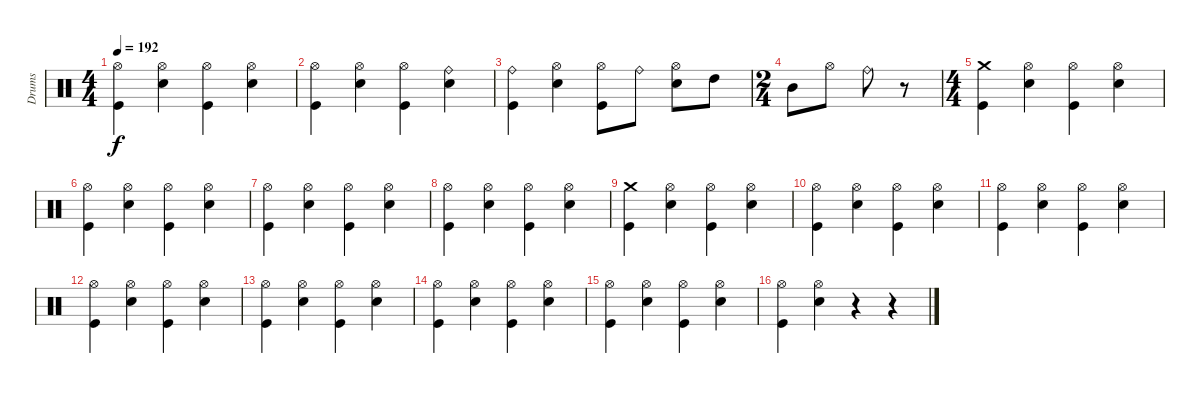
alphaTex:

\track ("Drums" "Drums") {instrument percussion}
\staff {score}
\articulation defaults
\ts (4 4)
\tempo 192
\clef neutral
\ks c
("Kick (hit)" "Hi-Hat (open)").4{dy f} ("Snare (hit) 2" "Hi-Hat (open)").4 ("Kick (hit)" "Hi-Hat (open)").4 ("Snare (hit) 2" "Hi-Hat (open)").4 |
("Kick (hit)" "Hi-Hat (open)").4 ("Snare (hit) 2" "Hi-Hat (open)").4 ("Kick (hit)" "Hi-Hat (open)").4 ("Snare (hit) 2" "Ride (bell)").4 |
("Kick (hit)" "Ride (bell)").4 ("Snare (hit) 2" "Hi-Hat (open)").4 ("Kick (hit)" "Hi-Hat (open)").8 "Ride (bell)".8 ("Snare (hit) 2" "Hi-Hat (open)").8 "High Tom (hit)".8 |
\ts (2 4)
"Mid Tom (hit)".8 "Hi-Hat (open)".8 "Ride (bell)".8 r.8 |
\ts (4 4)
("Kick (hit)" "Crash medium (hit)").4 ("Snare (hit) 2" "Hi-Hat (open)").4 ("Kick (hit)" "Hi-Hat (open)").4 ("Snare (hit) 2" "Hi-Hat (open)").4 |
("Kick (hit)" "Hi-Hat (open)").4 ("Snare (hit) 2" "Hi-Hat (open)").4 ("Kick (hit)" "Hi-Hat (open)").4 ("Snare (hit) 2" "Hi-Hat (open)").4 |
("Kick (hit)" "Hi-Hat (open)").4 ("Snare (hit) 2" "Hi-Hat (open)").4 ("Kick (hit)" "Hi-Hat (open)").4 ("Snare (hit) 2" "Hi-Hat (open)").4 |
("Kick (hit)" "Hi-Hat (open)").4 ("Snare (hit) 2" "Hi-Hat (open)").4 ("Kick (hit)" "Hi-Hat (open)").4 ("Snare (hit) 2" "Hi-Hat (open)").4 |
("Kick (hit)" "Crash medium (hit)").4 ("Snare (hit) 2" "Hi-Hat (open)").4 ("Kick (hit)" "Hi-Hat (open)").4 ("Snare (hit) 2" "Hi-Hat (open)").4 |
("Kick (hit)" "Hi-Hat (open)").4 ("Snare (hit) 2" "Hi-Hat (open)").4 ("Kick (hit)" "Hi-Hat (open)").4 ("Snare (hit) 2" "Hi-Hat (open)").4 |
("Kick (hit)" "Hi-Hat (open)").4 ("Snare (hit) 2" "Hi-Hat (open)").4 ("Kick (hit)" "Hi-Hat (open)").4 ("Snare (hit) 2" "Hi-Hat (open)").4 |
("Kick (hit)" "Hi-Hat (open)").4 ("Snare (hit) 2" "Hi-Hat (open)").4 ("Kick (hit)" "Hi-Hat (open)").4 ("Snare (hit) 2" "Hi-Hat (open)").4 |
("Kick (hit)" "Hi-Hat (open)").4 ("Snare (hit) 2" "Hi-Hat (open)").4 ("Kick (hit)" "Hi-Hat (open)").4 ("Snare (hit) 2" "Hi-Hat (open)").4 |
("Kick (hit)" "Hi-Hat (open)").4 ("Snare (hit) 2" "Hi-Hat (open)").4 ("Kick (hit)" "Hi-Hat (open)").4 ("Snare (hit) 2" "Hi-Hat (open)").4 |
("Kick (hit)" "Hi-Hat (open)").4 ("Snare (hit) 2" "Hi-Hat (open)").4 ("Kick (hit)" "Hi-Hat (open)").4 ("Snare (hit) 2" "Hi-Hat (open)").4 |
("Kick (hit)" "Hi-Hat (open)").4 ("Snare (hit) 2" "Hi-Hat (open)").4 r.4 r.4
